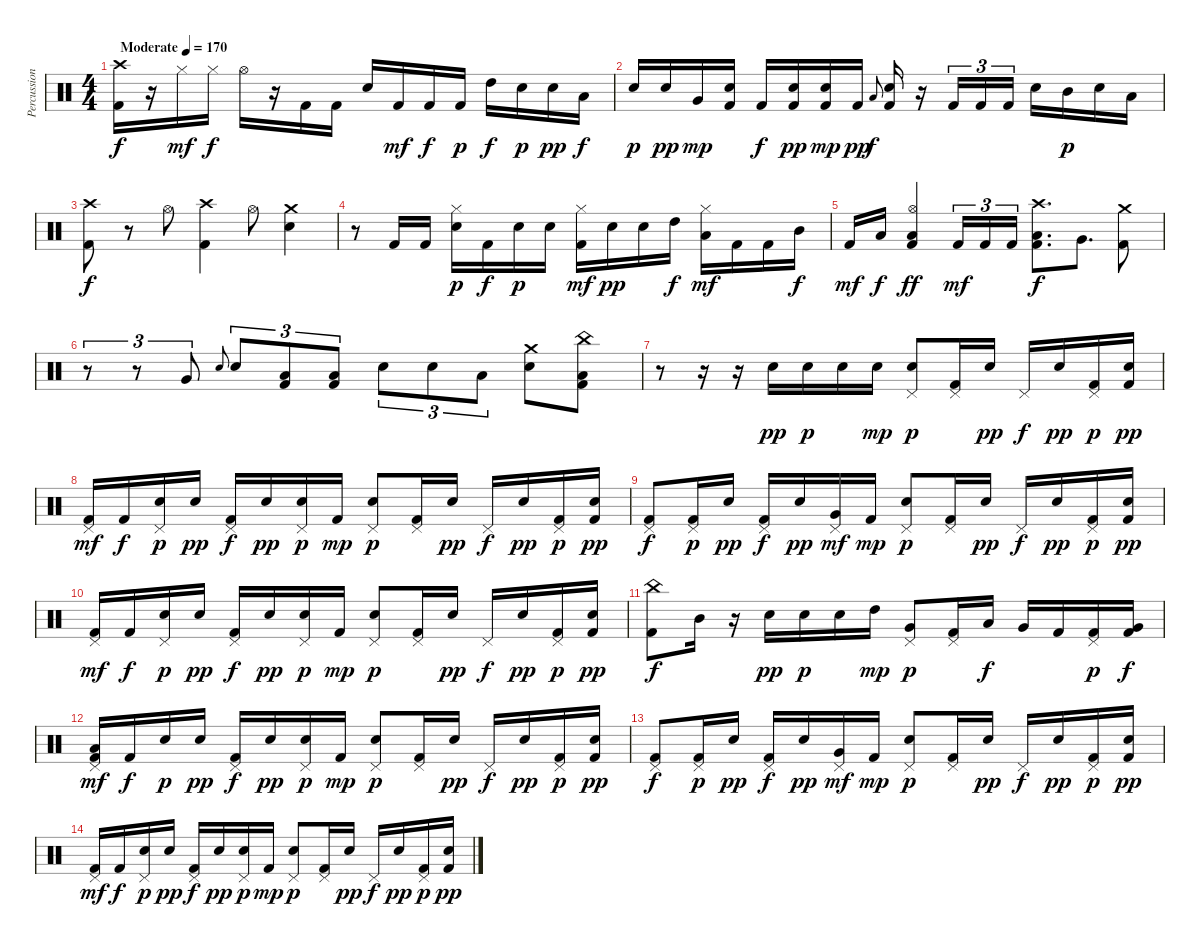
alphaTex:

\track ("Percussion" "Percussion") {instrument percussion}
\staff {score}
\articulation defaults
\ts (4 4)
\tempo (170 "Moderate")
\clef neutral
\ks c
("Crash high (hit)" "Kick (hit) 2").16{dy f} r.16 "Hi-Hat (closed)".16{dy mf} "Hi-Hat (closed)".16{dy f} "Hi-Hat (open)".16 r.16 "Kick (hit) 2".16 "Kick (hit) 2".16 "Electric Snare (hit)".16 "Kick (hit) 2".16{dy mf} "Kick (hit) 2".16{dy f} "Kick (hit) 2".16{dy p} "High Tom (hit)".16{dy f} "Electric Snare (hit)".16{dy p} "Electric Snare (hit)".16{dy pp} "Low Tom (hit)".16{dy f} |
"Electric Snare (hit)".16{dy p} "Electric Snare (hit)".16{dy pp} "Very Low Tom (hit)".16{dy mp} ("Electric Snare (hit)" "Kick (hit) 2").16 "Kick (hit) 2".16{dy f} ("Electric Snare (hit)" "Kick (hit) 2").16{dy pp} ("Electric Snare (hit)" "Kick (hit) 2").16{dy mp} "Kick (hit) 2".16{dy pp} "Low Floor Tom (hit)".8{gr onbeat dy f} ("Electric Snare (hit)" "Kick (hit) 2").16 r.16 "Kick (hit) 2".16{tu (3 2)} "Kick (hit) 2".16{tu (3 2)} "Kick (hit) 2".16{tu (3 2)} "Electric Snare (hit)".16 "Mid Tom (hit)".16{dy p} "Electric Snare (hit)".16 "Low Tom (hit)".16 |
("Crash high (hit)" "Kick (hit) 2").8{dy f} r.8 "Hi-Hat (open)".8 ("Crash high (hit)" "Kick (hit) 2").4 "Hi-Hat (open)".8 ("Crash medium (hit)" "Electric Snare (hit)").4 |
r.8 "Kick (hit) 2".16 "Kick (hit) 2".16 ("Hi-Hat (closed)" "Electric Snare (hit)").16{dy p} "Kick (hit) 2".16{dy f} "Electric Snare (hit)".16{dy p} "Electric Snare (hit)".16 ("Hi-Hat (closed)" "Kick (hit) 2").16{dy mf} "Electric Snare (hit)".16{dy pp} "Electric Snare (hit)".16 "High Tom (hit)".16{dy f} ("Hi-Hat (closed)" "Low Floor Tom (hit)").16{dy mf} "Kick (hit) 2".16 "Kick (hit) 2".16 "Mid Tom (hit)".16{dy f} |
"Kick (hit) 2".16{dy mf} "Low Tom (hit)".16{dy f} ("Hi-Hat (open)" "Low Floor Tom (hit)" "Kick (hit) 2").4{dy ff} "Kick (hit) 2".16{tu (3 2) dy mf} "Kick (hit) 2".16{tu (3 2)} "Kick (hit) 2".16{tu (3 2)} ("Crash high (hit)" "Low Tom (hit)" "Kick (hit) 2").8{d dy f} "Very Low Tom (hit)".8{d} ("Crash medium (hit)" "Kick (hit) 2").8 |
r.8{tu (3 2)} r.8{tu (3 2)} "Very Low Tom (hit)".8{tu (3 2)} "Electric Snare (hit)".8{gr onbeat} "Electric Snare (hit)".8{tu (3 2)} ("Low Tom (hit)" "Kick (hit) 2").8{tu (3 2)} ("Low Tom (hit)" "Kick (hit) 2").8{tu (3 2)} "Electric Snare (hit)".8{tu (3 2)} "Electric Snare (hit)".8{tu (3 2)} "Low Tom (hit)".8{tu (3 2)} ("Crash medium (hit)" "Electric Snare (hit)").8 ("China (hit)" "Low Floor Tom (hit)" "Kick (hit) 2").8 |
r.8 r.16 r.16 "Electric Snare (hit)".16{dy pp} "Electric Snare (hit)".16{dy p} "Electric Snare (hit)".16 "Electric Snare (hit)".16{dy mp} ("Pedal Hi-Hat (hit)" "Electric Snare (hit)").8{dy p} ("Pedal Hi-Hat (hit)" "Kick (hit) 2").16 "Electric Snare (hit)".16{dy pp} "Pedal Hi-Hat (hit)".16{dy f} "Electric Snare (hit)".16{dy pp} ("Pedal Hi-Hat (hit)" "Kick (hit) 2").16{dy p} ("Electric Snare (hit)" "Kick (hit) 2").16{dy pp} |
("Pedal Hi-Hat (hit)" "Kick (hit) 2").16{dy mf} "Kick (hit) 2".16{dy f} ("Pedal Hi-Hat (hit)" "Electric Snare (hit)").16{dy p} "Electric Snare (hit)".16{dy pp} ("Pedal Hi-Hat (hit)" "Kick (hit) 2").16{dy f} "Electric Snare (hit)".16{dy pp} ("Pedal Hi-Hat (hit)" "Electric Snare (hit)").16{dy p} "Kick (hit) 2".16{dy mp} ("Pedal Hi-Hat (hit)" "Electric Snare (hit)").8{dy p} ("Pedal Hi-Hat (hit)" "Kick (hit) 2").16 "Electric Snare (hit)".16{dy pp} "Pedal Hi-Hat (hit)".16{dy f} "Electric Snare (hit)".16{dy pp} ("Pedal Hi-Hat (hit)" "Kick (hit) 2").16{dy p} ("Electric Snare (hit)" "Kick (hit) 2").16{dy pp} |
("Pedal Hi-Hat (hit)" "Kick (hit) 2").8{dy f} ("Pedal Hi-Hat (hit)" "Kick (hit) 2").16{dy p} "Electric Snare (hit)".16{dy pp} ("Pedal Hi-Hat (hit)" "Kick (hit) 2").16{dy f} "Electric Snare (hit)".16{dy pp} ("Pedal Hi-Hat (hit)" "Very Low Tom (hit)").16{dy mf} "Kick (hit) 2".16{dy mp} ("Pedal Hi-Hat (hit)" "Electric Snare (hit)").8{dy p} ("Pedal Hi-Hat (hit)" "Kick (hit) 2").16 "Electric Snare (hit)".16{dy pp} "Pedal Hi-Hat (hit)".16{dy f} "Electric Snare (hit)".16{dy pp} ("Pedal Hi-Hat (hit)" "Kick (hit) 2").16{dy p} ("Electric Snare (hit)" "Kick (hit) 2").16{dy pp} |
("Pedal Hi-Hat (hit)" "Kick (hit) 2").16{dy mf} "Kick (hit) 2".16{dy f} ("Pedal Hi-Hat (hit)" "Electric Snare (hit)").16{dy p} "Electric Snare (hit)".16{dy pp} ("Pedal Hi-Hat (hit)" "Kick (hit) 2").16{dy f} "Electric Snare (hit)".16{dy pp} ("Pedal Hi-Hat (hit)" "Electric Snare (hit)").16{dy p} "Kick (hit) 2".16{dy mp} ("Pedal Hi-Hat (hit)" "Electric Snare (hit)").8{dy p} ("Pedal Hi-Hat (hit)" "Kick (hit) 2").16 "Electric Snare (hit)".16{dy pp} "Pedal Hi-Hat (hit)".16{dy f} "Electric Snare (hit)".16{dy pp} ("Pedal Hi-Hat (hit)" "Kick (hit) 2").16{dy p} ("Electric Snare (hit)" "Kick (hit) 2").16{dy pp} |
("China (hit)" "Kick (hit) 2").8{dy f} "Mid Tom (hit)".16 r.16 "Electric Snare (hit)".16{dy pp} "Electric Snare (hit)".16{dy p} "Electric Snare (hit)".16 "High Tom (hit)".16{dy mp} ("Pedal Hi-Hat (hit)" "Very Low Tom (hit)").8{dy p} ("Pedal Hi-Hat (hit)" "Kick (hit) 2").16 "Low Tom (hit)".16{dy f} "Very Low Tom (hit)".16 "Kick (hit) 2".16 ("Pedal Hi-Hat (hit)" "Kick (hit) 2").16{dy p} ("Very Low Tom (hit)" "Kick (hit) 2").16{dy f} |
("Pedal Hi-Hat (hit)" "Low Floor Tom (hit)" "Kick (hit) 2").16{dy mf} "Kick (hit) 2".16{dy f} "Electric Snare (hit)".16{dy p} "Electric Snare (hit)".16{dy pp} ("Pedal Hi-Hat (hit)" "Kick (hit) 2").16{dy f} "Electric Snare (hit)".16{dy pp} ("Pedal Hi-Hat (hit)" "Electric Snare (hit)").16{dy p} "Kick (hit) 2".16{dy mp} ("Pedal Hi-Hat (hit)" "Electric Snare (hit)").8{dy p} ("Pedal Hi-Hat (hit)" "Kick (hit) 2").16 "Electric Snare (hit)".16{dy pp} "Pedal Hi-Hat (hit)".16{dy f} "Electric Snare (hit)".16{dy pp} ("Pedal Hi-Hat (hit)" "Kick (hit) 2").16{dy p} ("Electric Snare (hit)" "Kick (hit) 2").16{dy pp} |
("Pedal Hi-Hat (hit)" "Kick (hit) 2").8{dy f} ("Pedal Hi-Hat (hit)" "Kick (hit) 2").16{dy p} "Electric Snare (hit)".16{dy pp} ("Pedal Hi-Hat (hit)" "Kick (hit) 2").16{dy f} "Electric Snare (hit)".16{dy pp} ("Pedal Hi-Hat (hit)" "Very Low Tom (hit)").16{dy mf} "Kick (hit) 2".16{dy mp} ("Pedal Hi-Hat (hit)" "Electric Snare (hit)").8{dy p} ("Pedal Hi-Hat (hit)" "Kick (hit) 2").16 "Electric Snare (hit)".16{dy pp} "Pedal Hi-Hat (hit)".16{dy f} "Electric Snare (hit)".16{dy pp} ("Pedal Hi-Hat (hit)" "Kick (hit) 2").16{dy p} ("Electric Snare (hit)" "Kick (hit) 2").16{dy pp} |
("Pedal Hi-Hat (hit)" "Kick (hit) 2").16{dy mf} "Kick (hit) 2".16{dy f} ("Pedal Hi-Hat (hit)" "Electric Snare (hit)").16{dy p} "Electric Snare (hit)".16{dy pp} ("Pedal Hi-Hat (hit)" "Kick (hit) 2").16{dy f} "Electric Snare (hit)".16{dy pp} ("Pedal Hi-Hat (hit)" "Electric Snare (hit)").16{dy p} "Kick (hit) 2".16{dy mp} ("Pedal Hi-Hat (hit)" "Electric Snare (hit)").8{dy p} ("Pedal Hi-Hat (hit)" "Kick (hit) 2").16 "Electric Snare (hit)".16{dy pp} "Pedal Hi-Hat (hit)".16{dy f} "Electric Snare (hit)".16{dy pp} ("Pedal Hi-Hat (hit)" "Kick (hit) 2").16{dy p} ("Electric Snare (hit)" "Kick (hit) 2").16{dy pp}
